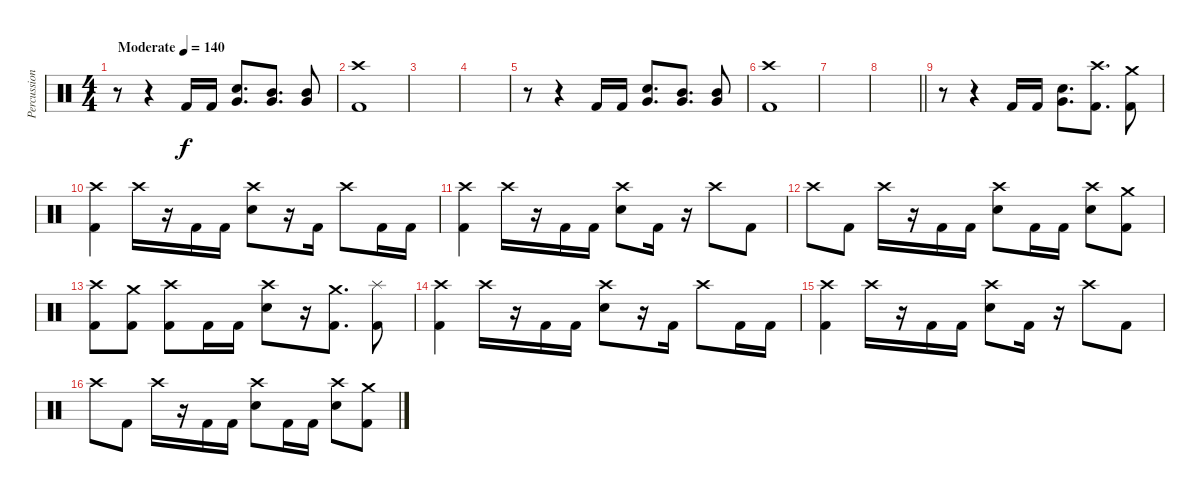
\track ("Percussion" "Percussion") {instrument percussion}
\staff {score}
\articulation defaults
\ts (4 4)
\tempo (140 "Moderate")
\clef neutral
\ks c
r.8{dy f} r.4 "Kick (hit) 2".16 "Kick (hit) 2".16 ("Electric Snare (hit)" "Very Low Tom (hit)").8{d} ("Mid Tom (hit)" "Very Low Tom (hit)").8{d} ("Mid Tom (hit)" "Very Low Tom (hit)").8 |
("Crash high (hit)" "Kick (hit) 2").1 |
|
|
r.8 r.4 "Kick (hit) 2".16 "Kick (hit) 2".16 ("Electric Snare (hit)" "Very Low Tom (hit)").8{d} ("Mid Tom (hit)" "Very Low Tom (hit)").8{d} ("Mid Tom (hit)" "Very Low Tom (hit)").8 |
("Crash high (hit)" "Kick (hit) 2").1 |
|
\barLineRight lightlight
|
\section ("" "")
r.8 r.4 "Kick (hit) 2".16 "Kick (hit) 2".16 ("Electric Snare (hit)" "Very Low Tom (hit)").8{d} ("Crash high (hit)" "Kick (hit) 2").8{d} ("Crash medium (hit)" "Kick (hit) 2").8 |
("Crash high (hit)" "Kick (hit) 2").4 "Crash high (hit)".16 r.16 "Kick (hit) 2".16 "Kick (hit) 2".16 ("Crash high (hit)" "Electric Snare (hit)").8 r.16 "Kick (hit) 2".16 "Crash high (hit)".8 "Kick (hit) 2".16 "Kick (hit) 2".16 |
("Crash high (hit)" "Kick (hit) 2").4 "Crash high (hit)".16 r.16 "Kick (hit) 2".16 "Kick (hit) 2".16 ("Crash high (hit)" "Electric Snare (hit)").8 "Kick (hit) 2".16 r.16 "Crash high (hit)".8 "Kick (hit) 2".8 |
"Crash high (hit)".8 "Kick (hit) 2".8 "Crash high (hit)".16 r.16 "Kick (hit) 2".16 "Kick (hit) 2".16 ("Crash high (hit)" "Electric Snare (hit)").8 "Kick (hit) 2".16 "Kick (hit) 2".16 ("Crash high (hit)" "Electric Snare (hit)").8 ("Crash medium (hit)" "Kick (hit) 2").8 |
("Crash high (hit)" "Kick (hit) 2").8 ("Crash medium (hit)" "Kick (hit) 2").8 ("Crash high (hit)" "Kick (hit) 2").8 "Kick (hit) 2".16 "Kick (hit) 2".16 ("Crash high (hit)" "Electric Snare (hit)").8 r.16 ("Crash medium (hit)" "Kick (hit) 2").8{d} ("Splash (hit)" "Kick (hit) 2").8 |
("Crash high (hit)" "Kick (hit) 2").4 "Crash high (hit)".16 r.16 "Kick (hit) 2".16 "Kick (hit) 2".16 ("Crash high (hit)" "Electric Snare (hit)").8 r.16 "Kick (hit) 2".16 "Crash high (hit)".8 "Kick (hit) 2".16 "Kick (hit) 2".16 |
("Crash high (hit)" "Kick (hit) 2").4 "Crash high (hit)".16 r.16 "Kick (hit) 2".16 "Kick (hit) 2".16 ("Crash high (hit)" "Electric Snare (hit)").8 "Kick (hit) 2".16 r.16 "Crash high (hit)".8 "Kick (hit) 2".8 |
"Crash high (hit)".8 "Kick (hit) 2".8 "Crash high (hit)".16 r.16 "Kick (hit) 2".16 "Kick (hit) 2".16 ("Crash high (hit)" "Electric Snare (hit)").8 "Kick (hit) 2".16 "Kick (hit) 2".16 ("Crash high (hit)" "Electric Snare (hit)").8 ("Crash medium (hit)" "Kick (hit) 2").8
